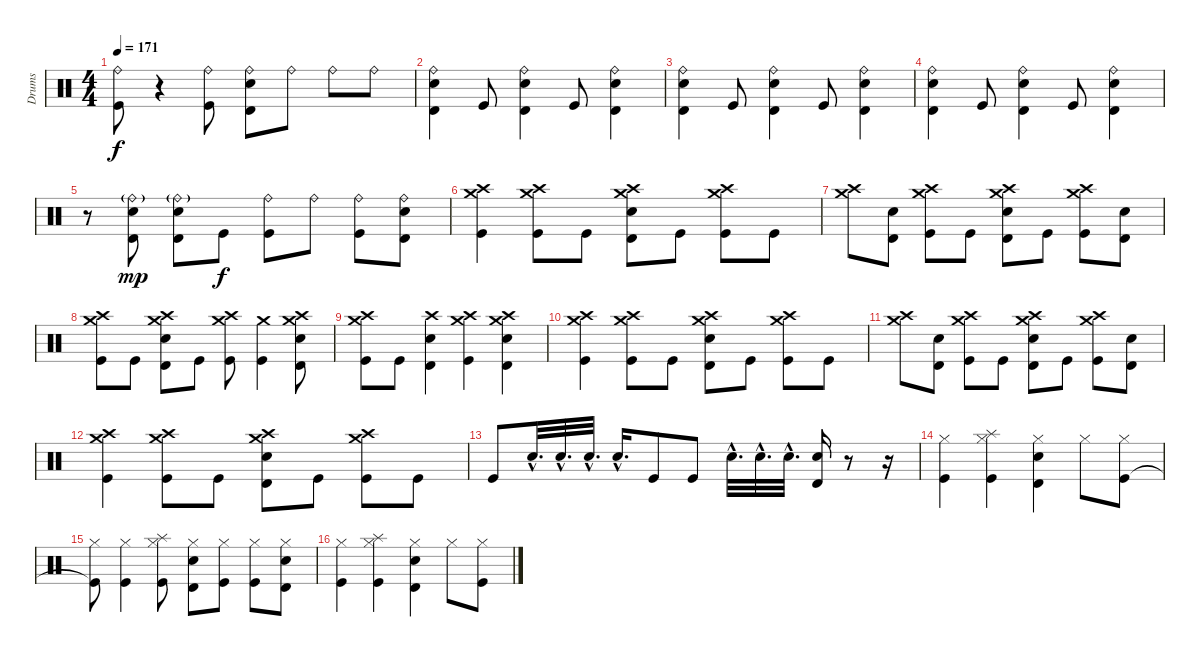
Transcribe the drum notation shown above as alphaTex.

\track ("Drums" "Drums") {instrument percussion}
\staff {score}
\articulation defaults
\ts (4 4)
\tempo 171
\clef neutral
\ks c
("Ride (bell)" "Kick (hit)").8{dy f} r.4 ("Ride (bell)" "Kick (hit)").8 ("Ride (bell)" "Timbale high (hit)" "Electric Snare (hit)").8 "Ride (bell)".8 "Ride (bell)".8 "Ride (bell)".8 |
("Ride (bell)" "Electric Snare (hit)" "Timbale high (hit)").4 "Kick (hit)".8 ("Ride (bell)" "Electric Snare (hit)" "Timbale high (hit)").4 "Kick (hit)".8 ("Ride (bell)" "Electric Snare (hit)" "Timbale high (hit)").4 |
("Ride (bell)" "Electric Snare (hit)" "Timbale high (hit)").4 "Kick (hit)".8 ("Ride (bell)" "Electric Snare (hit)" "Timbale high (hit)").4 "Kick (hit)".8 ("Ride (bell)" "Electric Snare (hit)" "Timbale high (hit)").4 |
("Ride (bell)" "Electric Snare (hit)" "Timbale high (hit)").4 "Kick (hit)".8 ("Ride (bell)" "Electric Snare (hit)" "Timbale high (hit)").4 "Kick (hit)".8 ("Ride (bell)" "Electric Snare (hit)" "Timbale high (hit)").4 |
r.8 ("Timbale high (hit)" "Electric Snare (hit)" "Ride (bell)"{g}).8{dy mp} ("Timbale high (hit)" "Electric Snare (hit)" "Ride (bell)"{g}).8 "Kick (hit)".8{dy f} ("Ride (bell)" "Kick (hit)").8 "Ride (bell)".8 ("Ride (bell)" "Kick (hit)").8 ("Ride (bell)" "Electric Snare (hit)" "Timbale high (hit)").8 |
("Crash high (hit)" "Crash medium (hit)" "Kick (hit)").4{volume 16} ("Crash high (hit)" "Crash medium (hit)" "Kick (hit)").8 "Kick (hit)".8 ("Timbale high (hit)" "Electric Snare (hit)" "Crash high (hit)" "Crash medium (hit)").8 "Kick (hit)".8 ("Crash high (hit)" "Crash medium (hit)" "Kick (hit)").8 "Kick (hit)".8 |
("Crash high (hit)" "Crash medium (hit)").8 ("Electric Snare (hit)" "Timbale high (hit)").8 ("Crash high (hit)" "Crash medium (hit)" "Kick (hit)").8 "Kick (hit)".8 ("Timbale high (hit)" "Electric Snare (hit)" "Crash medium (hit)" "Crash high (hit)").8 "Kick (hit)".8 ("Crash high (hit)" "Crash medium (hit)" "Kick (hit)").8 ("Electric Snare (hit)" "Timbale high (hit)").8 |
("Crash high (hit)" "Crash medium (hit)" "Kick (hit)").8 "Kick (hit)".8 ("Electric Snare (hit)" "Timbale high (hit)" "Crash high (hit)" "Crash medium (hit)").8 "Kick (hit)".8 ("Crash high (hit)" "Crash medium (hit)" "Kick (hit)").8 ("Crash medium (hit)" "Kick (hit)").4 ("Electric Snare (hit)" "Timbale high (hit)" "Crash medium (hit)" "Crash high (hit)").8 |
("Crash high (hit)" "Crash medium (hit)" "Kick (hit)").8 "Kick (hit)".8 ("Timbale high (hit)" "Electric Snare (hit)" "Crash high (hit)").4 ("Crash medium (hit)" "Crash high (hit)" "Kick (hit)").4 ("Crash high (hit)" "Crash medium (hit)" "Timbale high (hit)" "Electric Snare (hit)").4 |
("Crash high (hit)" "Crash medium (hit)" "Kick (hit)").4 ("Crash high (hit)" "Crash medium (hit)" "Kick (hit)").8 "Kick (hit)".8 ("Timbale high (hit)" "Electric Snare (hit)" "Crash high (hit)" "Crash medium (hit)").8 "Kick (hit)".8 ("Crash high (hit)" "Crash medium (hit)" "Kick (hit)").8 "Kick (hit)".8 |
("Crash high (hit)" "Crash medium (hit)").8 ("Electric Snare (hit)" "Timbale high (hit)").8 ("Crash high (hit)" "Crash medium (hit)" "Kick (hit)").8 "Kick (hit)".8 ("Timbale high (hit)" "Electric Snare (hit)" "Crash medium (hit)" "Crash high (hit)").8 "Kick (hit)".8 ("Crash high (hit)" "Crash medium (hit)" "Kick (hit)").8 ("Electric Snare (hit)" "Timbale high (hit)").8 |
("Crash high (hit)" "Crash medium (hit)" "Kick (hit)").4 ("Crash high (hit)" "Crash medium (hit)" "Kick (hit)").8 "Kick (hit)".8 ("Timbale high (hit)" "Electric Snare (hit)" "Crash high (hit)" "Crash medium (hit)").8 "Kick (hit)".8 ("Crash high (hit)" "Crash medium (hit)" "Kick (hit)").8 "Kick (hit)".8 |
"Kick (hit)".8{volume 13} "Electric Snare (hit)"{hac}.32{d} "Electric Snare (hit)"{hac}.32{d} "Electric Snare (hit)"{hac}.32{d} "Electric Snare (hit)"{hac}.16{d} "Kick (hit)".8 "Kick (hit)".8 "Electric Snare (hit)"{hac}.32{d} "Electric Snare (hit)"{hac}.32{d} "Electric Snare (hit)"{hac}.32{d} ("Electric Snare (hit)" "Timbale high (hit)").16 r.8 r.16 |
("Hi-Hat (closed)" "Kick (hit)").4 ("Hi-Hat (closed)" "Splash (hit)" "Kick (hit)").4 ("Hi-Hat (closed)" "Timbale high (hit)" "Electric Snare (hit)").4 "Hi-Hat (closed)".8 ("Hi-Hat (closed)" "Kick (hit)").8 |
("Hi-Hat (closed)" "Kick (hit)"{t}).8 ("Hi-Hat (closed)" "Kick (hit)").4 ("Hi-Hat (closed)" "Splash (hit)" "Kick (hit)").8 ("Hi-Hat (closed)" "Timbale high (hit)" "Electric Snare (hit)").8 ("Hi-Hat (closed)" "Kick (hit)").8 ("Hi-Hat (closed)" "Kick (hit)").8 ("Hi-Hat (closed)" "Timbale high (hit)" "Electric Snare (hit)").8 |
("Hi-Hat (closed)" "Kick (hit)").4 ("Hi-Hat (closed)" "Splash (hit)" "Kick (hit)").4 ("Hi-Hat (closed)" "Timbale high (hit)" "Electric Snare (hit)").4 "Hi-Hat (closed)".8 ("Hi-Hat (closed)" "Kick (hit)").8
